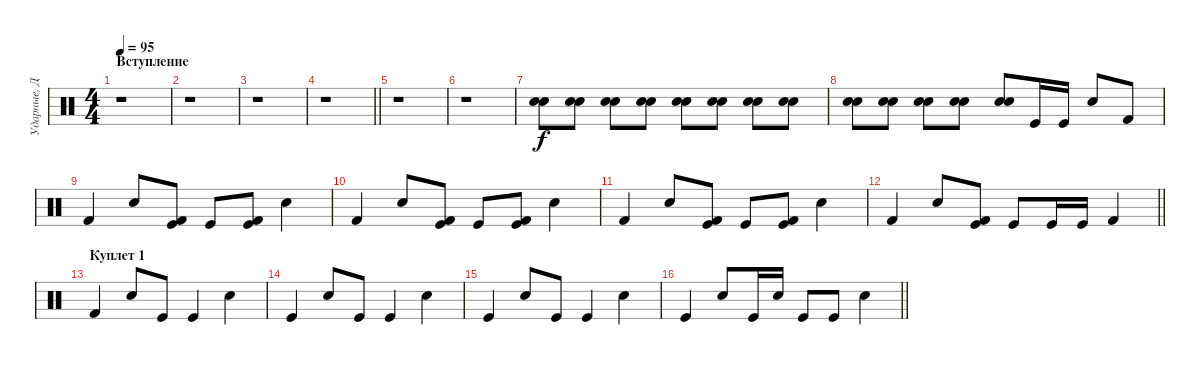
\track ("Ударные, Дэн" "Ударные, Д") {instrument percussion}
\staff {score}
\articulation defaults
\ts (4 4)
\section ("" "Вступление")
\tempo 95
\clef neutral
\ks c
r.1{dy f} |
r.1 |
r.1 |
\barLineRight lightlight
r.1 |
\section ("" "")
r.1 |
r.1 |
("Electric Snare (hit)" "Electric Snare (hit)").8{volume 8} ("Electric Snare (hit)" "Electric Snare (hit)").8{volume 16} ("Electric Snare (hit)" "Electric Snare (hit)").8 ("Electric Snare (hit)" "Electric Snare (hit)").8 ("Electric Snare (hit)" "Electric Snare (hit)").8 ("Electric Snare (hit)" "Electric Snare (hit)").8 ("Electric Snare (hit)" "Electric Snare (hit)").8 ("Electric Snare (hit)" "Electric Snare (hit)").8 |
("Electric Snare (hit)" "Electric Snare (hit)").8 ("Electric Snare (hit)" "Electric Snare (hit)").8 ("Electric Snare (hit)" "Electric Snare (hit)").8 ("Electric Snare (hit)" "Electric Snare (hit)").8 ("Electric Snare (hit)" "Electric Snare (hit)").8 "Kick (hit)".16 "Kick (hit)".16 "Electric Snare (hit)".8 "Kick (hit) 2".8 |
"Kick (hit) 2".4 "Electric Snare (hit)".8 ("Kick (hit) 2" "Kick (hit)").8 "Kick (hit)".8 ("Kick (hit) 2" "Kick (hit)").8 "Electric Snare (hit)".4 |
"Kick (hit) 2".4 "Electric Snare (hit)".8 ("Kick (hit) 2" "Kick (hit)").8 "Kick (hit)".8 ("Kick (hit) 2" "Kick (hit)").8 "Electric Snare (hit)".4 |
"Kick (hit) 2".4 "Electric Snare (hit)".8 ("Kick (hit) 2" "Kick (hit)").8 "Kick (hit)".8 ("Kick (hit) 2" "Kick (hit)").8 "Electric Snare (hit)".4 |
\barLineRight lightlight "Kick (hit) 2".4 "Electric Snare (hit)".8
("Kick (hit) 2" "Kick (hit)").8 "Kick (hit)".8 "Kick (hit)".16 "Kick (hit)".16 "Kick (hit) 2".4 |
\section ("" "Куплет 1")
"Kick (hit) 2".4 "Electric Snare (hit)".8 "Kick (hit)".8 "Kick (hit)".4 "Electric Snare (hit)".4 |
"Kick (hit)".4 "Electric Snare (hit)".8 "Kick (hit)".8 "Kick (hit)".4 "Electric Snare (hit)".4 |
"Kick (hit)".4 "Electric Snare (hit)".8 "Kick (hit)".8 "Kick (hit)".4 "Electric Snare (hit)".4 |
\barLineRight lightlight "Kick (hit)".4 "Electric Snare (hit)".8 "Kick (hit)".16 "Electric Snare (hit)".16 "Kick (hit)".8 "Kick (hit)".8 "Electric Snare (hit)".4
